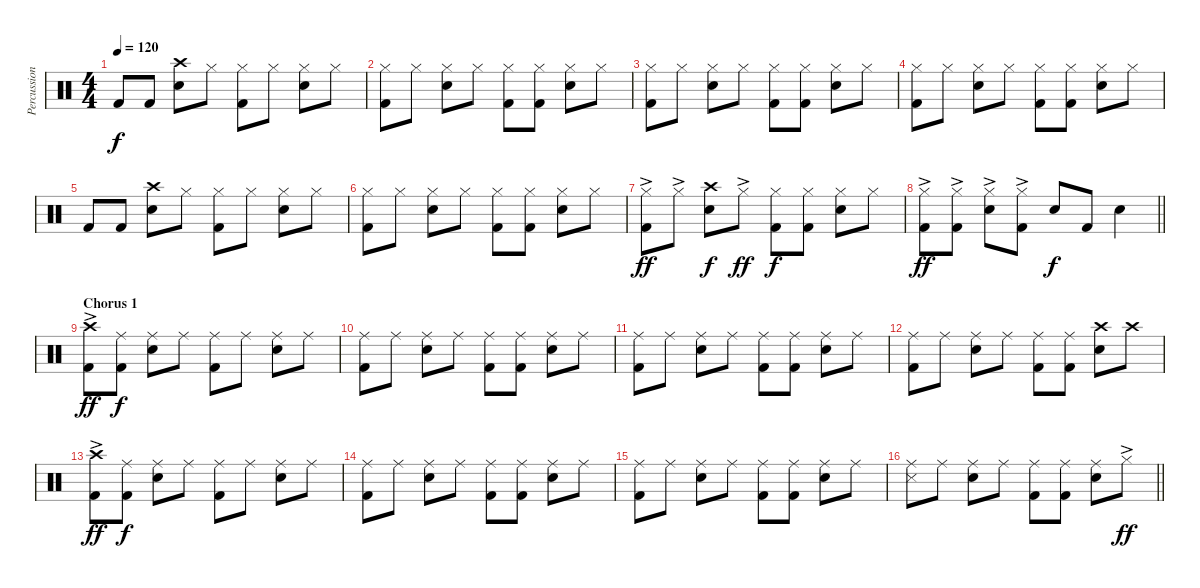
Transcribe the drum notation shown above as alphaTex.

\track ("Percussion" "Percussion") {instrument percussion}
\staff {score}
\articulation defaults
\ts (4 4)
\tempo 120
\clef neutral
\ks c "Kick (hit) 2".8{dy f} "Kick (hit) 2".8
("Crash high (hit)" "Snare (hit) 2").8 "Hi-Hat (closed)".8 ("Hi-Hat (closed)" "Kick (hit) 2").8 "Hi-Hat (closed)".8 ("Hi-Hat (closed)" "Snare (hit) 2").8 "Hi-Hat (closed)".8 |
("Hi-Hat (closed)" "Kick (hit) 2").8 "Hi-Hat (closed)".8 ("Hi-Hat (closed)" "Snare (hit) 2").8 "Hi-Hat (closed)".8 ("Hi-Hat (closed)" "Kick (hit) 2").8 ("Hi-Hat (closed)" "Kick (hit) 2").8 ("Hi-Hat (closed)" "Snare (hit) 2").8 "Hi-Hat (closed)".8 |
("Hi-Hat (closed)" "Kick (hit) 2").8 "Hi-Hat (closed)".8 ("Hi-Hat (closed)" "Snare (hit) 2").8 "Hi-Hat (closed)".8 ("Hi-Hat (closed)" "Kick (hit) 2").8 ("Hi-Hat (closed)" "Kick (hit) 2").8 ("Hi-Hat (closed)" "Snare (hit) 2").8 "Hi-Hat (closed)".8 |
("Hi-Hat (closed)" "Kick (hit) 2").8 "Hi-Hat (closed)".8 ("Hi-Hat (closed)" "Snare (hit) 2").8 "Hi-Hat (closed)".8 ("Hi-Hat (closed)" "Kick (hit) 2").8 ("Hi-Hat (closed)" "Kick (hit) 2").8 ("Hi-Hat (closed)" "Snare (hit) 2").8 "Hi-Hat (closed)".8 |
"Kick (hit) 2".8 "Kick (hit) 2".8 ("Crash high (hit)" "Snare (hit) 2").8 "Hi-Hat (closed)".8 ("Hi-Hat (closed)" "Kick (hit) 2").8 "Hi-Hat (closed)".8 ("Hi-Hat (closed)" "Snare (hit) 2").8 "Hi-Hat (closed)".8 |
("Hi-Hat (closed)" "Kick (hit) 2").8 "Hi-Hat (closed)".8 ("Hi-Hat (closed)" "Snare (hit) 2").8 "Hi-Hat (closed)".8 ("Hi-Hat (closed)" "Kick (hit) 2").8 ("Hi-Hat (closed)" "Kick (hit) 2").8 ("Hi-Hat (closed)" "Snare (hit) 2").8 "Hi-Hat (closed)".8 |
("Hi-Hat (closed)"{ac} "Kick (hit) 2").8{dy ff} "Hi-Hat (closed)"{ac}.8 ("Crash high (hit)" "Snare (hit) 2").8{dy f} "Hi-Hat (closed)"{ac}.8{dy ff} ("Hi-Hat (closed)" "Kick (hit) 2").8{dy f} ("Hi-Hat (closed)" "Kick (hit) 2").8 ("Hi-Hat (closed)" "Snare (hit) 2").8 "Hi-Hat (closed)".8 |
\barLineRight lightlight
("Hi-Hat (closed)"{ac} "Kick (hit) 2").8{dy ff} ("Hi-Hat (closed)"{ac} "Kick (hit) 2").8 ("Hi-Hat (closed)"{ac} "Snare (hit) 2").8 ("Hi-Hat (closed)"{ac} "Kick (hit) 2").8 "Snare (hit) 2".8{dy f} "Kick (hit) 2".8 "Snare (hit) 2".4 |
\section ("" "Chorus 1")
("Crash high (hit)"{ac} "Kick (hit) 2").8{dy ff} ("Kick (hit) 2" "Ride (middle)").8{dy f} ("Snare (hit) 2" "Ride (middle)").8 "Ride (middle)".8 ("Kick (hit) 2" "Ride (middle)").8 "Ride (middle)".8 ("Snare (hit) 2" "Ride (middle)").8 "Ride (middle)".8 |
("Kick (hit) 2" "Ride (middle)").8 "Ride (middle)".8 ("Snare (hit) 2" "Ride (middle)").8 "Ride (middle)".8 ("Kick (hit) 2" "Ride (middle)").8 ("Kick (hit) 2" "Ride (middle)").8 ("Snare (hit) 2" "Ride (middle)").8 "Ride (middle)".8 |
("Kick (hit) 2" "Ride (middle)").8 "Ride (middle)".8 ("Snare (hit) 2" "Ride (middle)").8 "Ride (middle)".8 ("Kick (hit) 2" "Ride (middle)").8 ("Kick (hit) 2" "Ride (middle)").8 ("Snare (hit) 2" "Ride (middle)").8 "Ride (middle)".8 |
("Kick (hit) 2" "Ride (middle)").8 "Ride (middle)".8 ("Snare (hit) 2" "Ride (middle)").8 "Ride (middle)".8 ("Kick (hit) 2" "Ride (middle)").8 ("Kick (hit) 2" "Ride (middle)").8 ("Crash high (hit)" "Snare (hit) 2").8 "Crash high (hit)".8 |
("Crash high (hit)"{ac} "Kick (hit) 2").8{dy ff} ("Kick (hit) 2" "Ride (middle)").8{dy f} ("Snare (hit) 2" "Ride (middle)").8 "Ride (middle)".8 ("Kick (hit) 2" "Ride (middle)").8 "Ride (middle)".8 ("Snare (hit) 2" "Ride (middle)").8 "Ride (middle)".8 |
("Kick (hit) 2" "Ride (middle)").8 "Ride (middle)".8 ("Snare (hit) 2" "Ride (middle)").8 "Ride (middle)".8 ("Kick (hit) 2" "Ride (middle)").8 ("Kick (hit) 2" "Ride (middle)").8 ("Snare (hit) 2" "Ride (middle)").8 "Ride (middle)".8 |
("Kick (hit) 2" "Ride (middle)").8 "Ride (middle)".8 ("Snare (hit) 2" "Ride (middle)").8 "Ride (middle)".8 ("Kick (hit) 2" "Ride (middle)").8 ("Kick (hit) 2" "Ride (middle)").8 ("Snare (hit) 2" "Ride (middle)").8 "Ride (middle)".8 |
\barLineRight lightlight
("Snare (side stick) 3" "Ride (middle)").8 "Ride (middle)".8 ("Snare (hit) 2" "Ride (middle)").8 "Ride (middle)".8 ("Kick (hit) 2" "Ride (middle)").8 ("Kick (hit) 2" "Ride (middle)").8 ("Snare (hit) 2" "Ride (middle)").8 "Hi-Hat (closed)"{ac}.8{dy ff}
